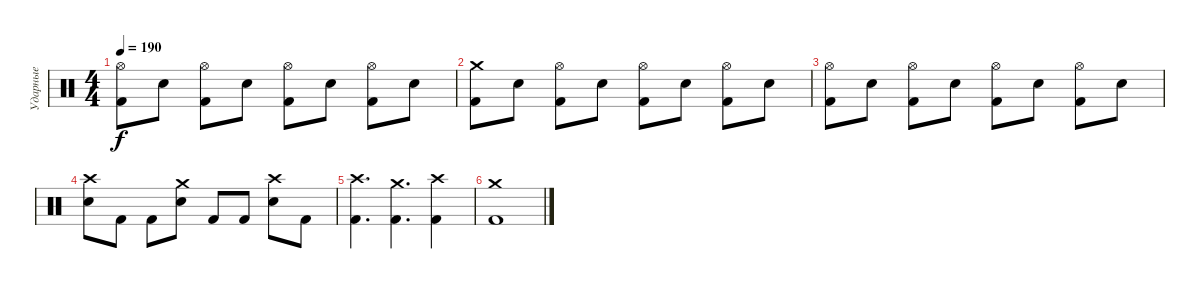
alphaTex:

\track ("Ударные" "Ударные") {instrument percussion}
\staff {score}
\articulation defaults
\ts (4 4)
\tempo 190
\clef neutral
\ks c
("Hi-Hat (open)" "Kick (hit) 2").8{dy f} "Electric Snare (hit)".8 ("Hi-Hat (open)" "Kick (hit) 2").8 "Electric Snare (hit)".8 ("Hi-Hat (open)" "Kick (hit) 2").8 "Electric Snare (hit)".8 ("Hi-Hat (open)" "Kick (hit) 2").8 "Electric Snare (hit)".8 |
("Crash medium (hit)" "Kick (hit) 2").8 "Electric Snare (hit)".8 ("Hi-Hat (open)" "Kick (hit) 2").8 "Electric Snare (hit)".8 ("Hi-Hat (open)" "Kick (hit) 2").8 "Electric Snare (hit)".8 ("Hi-Hat (open)" "Kick (hit) 2").8 "Electric Snare (hit)".8 |
("Hi-Hat (open)" "Kick (hit) 2").8 "Electric Snare (hit)".8 ("Hi-Hat (open)" "Kick (hit) 2").8 "Electric Snare (hit)".8 ("Hi-Hat (open)" "Kick (hit) 2").8 "Electric Snare (hit)".8 ("Hi-Hat (open)" "Kick (hit) 2").8 "Electric Snare (hit)".8 |
("Crash high (hit)" "Electric Snare (hit)").8 "Kick (hit) 2".8 "Kick (hit) 2".8 ("Crash medium (hit)" "Electric Snare (hit)").8 "Kick (hit) 2".8 "Kick (hit) 2".8 ("Crash high (hit)" "Electric Snare (hit)").8 "Kick (hit) 2".8 |
("Crash high (hit)" "Kick (hit) 2").4{d} ("Crash medium (hit)" "Kick (hit) 2").4{d} ("Crash high (hit)" "Kick (hit) 2").4 |
("Crash medium (hit)" "Kick (hit) 2").1
